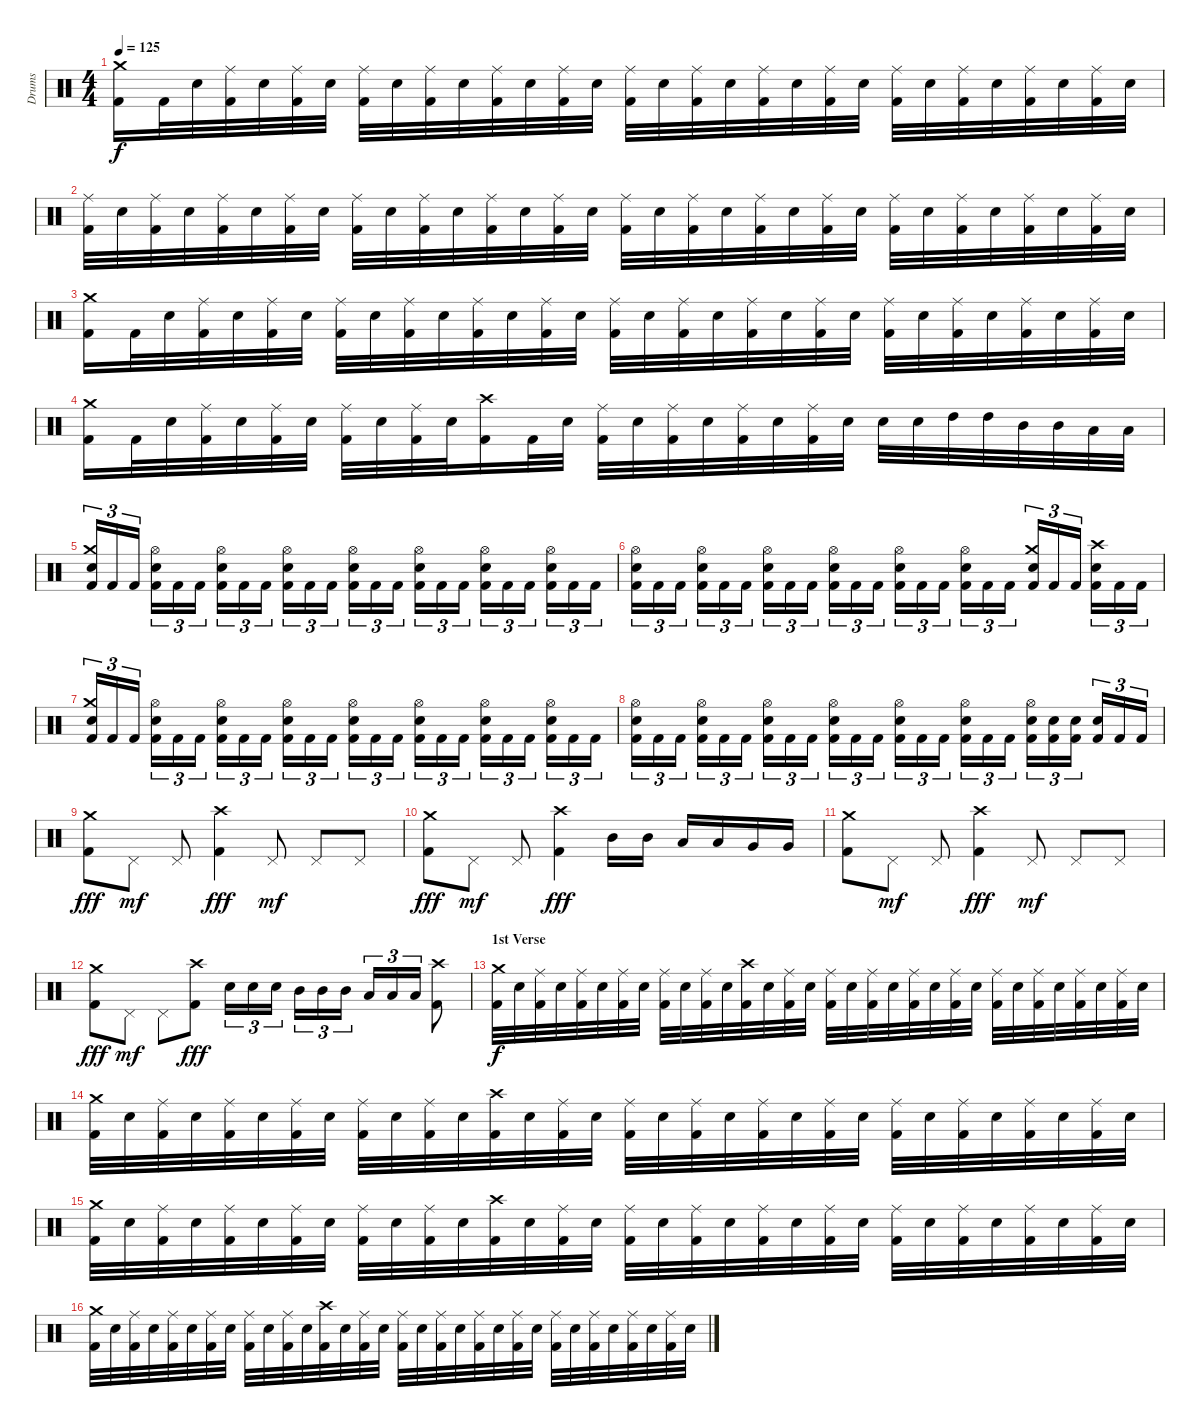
\track ("Drums" "Drums") {instrument percussion}
\staff {score}
\articulation defaults
\ts (4 4)
\tempo 125
\clef neutral
\ks c
("Kick (hit) 2" "Crash medium (hit)").16{dy f} "Kick (hit) 2".32 "Electric Snare (hit)".32 ("Kick (hit) 2" "Ride (middle)").32 "Electric Snare (hit)".32 ("Kick (hit) 2" "Ride (middle)").32 "Electric Snare (hit)".32 ("Kick (hit) 2" "Ride (middle)").32 "Electric Snare (hit)".32 ("Kick (hit) 2" "Ride (middle)").32 "Electric Snare (hit)".32 ("Kick (hit) 2" "Ride (middle)").32 "Electric Snare (hit)".32 ("Kick (hit) 2" "Ride (middle)").32 "Electric Snare (hit)".32 ("Kick (hit) 2" "Ride (middle)").32 "Electric Snare (hit)".32 ("Kick (hit) 2" "Ride (middle)").32 "Electric Snare (hit)".32 ("Kick (hit) 2" "Ride (middle)").32 "Electric Snare (hit)".32 ("Kick (hit) 2" "Ride (middle)").32 "Electric Snare (hit)".32 ("Kick (hit) 2" "Ride (middle)").32 "Electric Snare (hit)".32 ("Kick (hit) 2" "Ride (middle)").32 "Electric Snare (hit)".32 ("Kick (hit) 2" "Ride (middle)").32 "Electric Snare (hit)".32 ("Kick (hit) 2" "Ride (middle)").32 "Electric Snare (hit)".32 |
("Kick (hit) 2" "Ride (middle)").32 "Electric Snare (hit)".32 ("Kick (hit) 2" "Ride (middle)").32 "Electric Snare (hit)".32 ("Kick (hit) 2" "Ride (middle)").32 "Electric Snare (hit)".32 ("Kick (hit) 2" "Ride (middle)").32 "Electric Snare (hit)".32 ("Kick (hit) 2" "Ride (middle)").32 "Electric Snare (hit)".32 ("Kick (hit) 2" "Ride (middle)").32 "Electric Snare (hit)".32 ("Kick (hit) 2" "Ride (middle)").32 "Electric Snare (hit)".32 ("Kick (hit) 2" "Ride (middle)").32 "Electric Snare (hit)".32 ("Kick (hit) 2" "Ride (middle)").32 "Electric Snare (hit)".32 ("Kick (hit) 2" "Ride (middle)").32 "Electric Snare (hit)".32 ("Kick (hit) 2" "Ride (middle)").32 "Electric Snare (hit)".32 ("Kick (hit) 2" "Ride (middle)").32 "Electric Snare (hit)".32 ("Kick (hit) 2" "Ride (middle)").32 "Electric Snare (hit)".32 ("Kick (hit) 2" "Ride (middle)").32 "Electric Snare (hit)".32 ("Kick (hit) 2" "Ride (middle)").32 "Electric Snare (hit)".32 ("Kick (hit) 2" "Ride (middle)").32 "Electric Snare (hit)".32 |
("Kick (hit) 2" "Crash medium (hit)").16 "Kick (hit) 2".32 "Electric Snare (hit)".32 ("Kick (hit) 2" "Ride (middle)").32 "Electric Snare (hit)".32 ("Kick (hit) 2" "Ride (middle)").32 "Electric Snare (hit)".32 ("Kick (hit) 2" "Ride (middle)").32 "Electric Snare (hit)".32 ("Kick (hit) 2" "Ride (middle)").32 "Electric Snare (hit)".32 ("Kick (hit) 2" "Ride (middle)").32 "Electric Snare (hit)".32 ("Kick (hit) 2" "Ride (middle)").32 "Electric Snare (hit)".32 ("Kick (hit) 2" "Ride (middle)").32 "Electric Snare (hit)".32 ("Kick (hit) 2" "Ride (middle)").32 "Electric Snare (hit)".32 ("Kick (hit) 2" "Ride (middle)").32 "Electric Snare (hit)".32 ("Kick (hit) 2" "Ride (middle)").32 "Electric Snare (hit)".32 ("Kick (hit) 2" "Ride (middle)").32 "Electric Snare (hit)".32 ("Kick (hit) 2" "Ride (middle)").32 "Electric Snare (hit)".32 ("Kick (hit) 2" "Ride (middle)").32 "Electric Snare (hit)".32 ("Kick (hit) 2" "Ride (middle)").32 "Electric Snare (hit)".32 |
("Kick (hit) 2" "Crash medium (hit)").16 "Kick (hit) 2".32 "Electric Snare (hit)".32 ("Kick (hit) 2" "Ride (middle)").32 "Electric Snare (hit)".32 ("Kick (hit) 2" "Ride (middle)").32 "Electric Snare (hit)".32 ("Kick (hit) 2" "Ride (middle)").32 "Electric Snare (hit)".32 ("Kick (hit) 2" "Ride (middle)").32 "Electric Snare (hit)".32 ("Kick (hit) 2" "Crash high (hit)").16 "Kick (hit) 2".32 "Electric Snare (hit)".32 ("Kick (hit) 2" "Ride (middle)").32 "Electric Snare (hit)".32 ("Kick (hit) 2" "Ride (middle)").32 "Electric Snare (hit)".32 ("Kick (hit) 2" "Ride (middle)").32 "Electric Snare (hit)".32 ("Kick (hit) 2" "Ride (middle)").32 "Electric Snare (hit)".32 "Electric Snare (hit)".32 "Electric Snare (hit)".32 "High Tom (hit)".32 "High Tom (hit)".32 "Mid Tom (hit)".32 "Mid Tom (hit)".32 "Low Tom (hit)".32 "Low Tom (hit)".32 |
("Kick (hit) 2" "Electric Snare (hit)" "Crash medium (hit)").16{tu (3 2)} "Kick (hit) 2".16{tu (3 2)} "Kick (hit) 2".16{tu (3 2)} ("Kick (hit) 2" "Electric Snare (hit)" "Hi-Hat (open)").16{tu (3 2)} "Kick (hit) 2".16{tu (3 2)} "Kick (hit) 2".16{tu (3 2)} ("Kick (hit) 2" "Electric Snare (hit)" "Hi-Hat (open)").16{tu (3 2)} "Kick (hit) 2".16{tu (3 2)} "Kick (hit) 2".16{tu (3 2)} ("Kick (hit) 2" "Electric Snare (hit)" "Hi-Hat (open)").16{tu (3 2)} "Kick (hit) 2".16{tu (3 2)} "Kick (hit) 2".16{tu (3 2)} ("Kick (hit) 2" "Electric Snare (hit)" "Hi-Hat (open)").16{tu (3 2)} "Kick (hit) 2".16{tu (3 2)} "Kick (hit) 2".16{tu (3 2)} ("Kick (hit) 2" "Electric Snare (hit)" "Hi-Hat (open)").16{tu (3 2)} "Kick (hit) 2".16{tu (3 2)} "Kick (hit) 2".16{tu (3 2)} ("Kick (hit) 2" "Electric Snare (hit)" "Hi-Hat (open)").16{tu (3 2)} "Kick (hit) 2".16{tu (3 2)} "Kick (hit) 2".16{tu (3 2)} ("Kick (hit) 2" "Electric Snare (hit)" "Hi-Hat (open)").16{tu (3 2)} "Kick (hit) 2".16{tu (3 2)} "Kick (hit) 2".16{tu (3 2)} |
("Kick (hit) 2" "Electric Snare (hit)" "Hi-Hat (open)").16{tu (3 2)} "Kick (hit) 2".16{tu (3 2)} "Kick (hit) 2".16{tu (3 2)} ("Kick (hit) 2" "Electric Snare (hit)" "Hi-Hat (open)").16{tu (3 2)} "Kick (hit) 2".16{tu (3 2)} "Kick (hit) 2".16{tu (3 2)} ("Kick (hit) 2" "Electric Snare (hit)" "Hi-Hat (open)").16{tu (3 2)} "Kick (hit) 2".16{tu (3 2)} "Kick (hit) 2".16{tu (3 2)} ("Kick (hit) 2" "Electric Snare (hit)" "Hi-Hat (open)").16{tu (3 2)} "Kick (hit) 2".16{tu (3 2)} "Kick (hit) 2".16{tu (3 2)} ("Kick (hit) 2" "Electric Snare (hit)" "Hi-Hat (open)").16{tu (3 2)} "Kick (hit) 2".16{tu (3 2)} "Kick (hit) 2".16{tu (3 2)} ("Kick (hit) 2" "Electric Snare (hit)" "Hi-Hat (open)").16{tu (3 2)} "Kick (hit) 2".16{tu (3 2)} "Kick (hit) 2".16{tu (3 2)} ("Kick (hit) 2" "Electric Snare (hit)" "Crash medium (hit)").16{tu (3 2)} "Kick (hit) 2".16{tu (3 2)} "Kick (hit) 2".16{tu (3 2)} ("Kick (hit) 2" "Electric Snare (hit)" "Crash high (hit)").16{tu (3 2)} "Kick (hit) 2".16{tu (3 2)} "Kick (hit) 2".16{tu (3 2)} |
("Kick (hit) 2" "Electric Snare (hit)" "Crash medium (hit)").16{tu (3 2)} "Kick (hit) 2".16{tu (3 2)} "Kick (hit) 2".16{tu (3 2)} ("Kick (hit) 2" "Electric Snare (hit)" "Hi-Hat (open)").16{tu (3 2)} "Kick (hit) 2".16{tu (3 2)} "Kick (hit) 2".16{tu (3 2)} ("Kick (hit) 2" "Electric Snare (hit)" "Hi-Hat (open)").16{tu (3 2)} "Kick (hit) 2".16{tu (3 2)} "Kick (hit) 2".16{tu (3 2)} ("Kick (hit) 2" "Electric Snare (hit)" "Hi-Hat (open)").16{tu (3 2)} "Kick (hit) 2".16{tu (3 2)} "Kick (hit) 2".16{tu (3 2)} ("Kick (hit) 2" "Electric Snare (hit)" "Hi-Hat (open)").16{tu (3 2)} "Kick (hit) 2".16{tu (3 2)} "Kick (hit) 2".16{tu (3 2)} ("Kick (hit) 2" "Electric Snare (hit)" "Hi-Hat (open)").16{tu (3 2)} "Kick (hit) 2".16{tu (3 2)} "Kick (hit) 2".16{tu (3 2)} ("Kick (hit) 2" "Electric Snare (hit)" "Hi-Hat (open)").16{tu (3 2)} "Kick (hit) 2".16{tu (3 2)} "Kick (hit) 2".16{tu (3 2)} ("Kick (hit) 2" "Electric Snare (hit)" "Hi-Hat (open)").16{tu (3 2)} "Kick (hit) 2".16{tu (3 2)} "Kick (hit) 2".16{tu (3 2)} |
("Kick (hit) 2" "Electric Snare (hit)" "Hi-Hat (open)").16{tu (3 2)} "Kick (hit) 2".16{tu (3 2)} "Kick (hit) 2".16{tu (3 2)} ("Kick (hit) 2" "Electric Snare (hit)" "Hi-Hat (open)").16{tu (3 2)} "Kick (hit) 2".16{tu (3 2)} "Kick (hit) 2".16{tu (3 2)} ("Kick (hit) 2" "Electric Snare (hit)" "Hi-Hat (open)").16{tu (3 2)} "Kick (hit) 2".16{tu (3 2)} "Kick (hit) 2".16{tu (3 2)} ("Kick (hit) 2" "Electric Snare (hit)" "Hi-Hat (open)").16{tu (3 2)} "Kick (hit) 2".16{tu (3 2)} "Kick (hit) 2".16{tu (3 2)} ("Kick (hit) 2" "Electric Snare (hit)" "Hi-Hat (open)").16{tu (3 2)} "Kick (hit) 2".16{tu (3 2)} "Kick (hit) 2".16{tu (3 2)} ("Kick (hit) 2" "Electric Snare (hit)" "Hi-Hat (open)").16{tu (3 2)} "Kick (hit) 2".16{tu (3 2)} "Kick (hit) 2".16{tu (3 2)} ("Kick (hit) 2" "Electric Snare (hit)" "Hi-Hat (open)").16{tu (3 2)} ("Kick (hit) 2" "Electric Snare (hit)").16{tu (3 2)} ("Kick (hit) 2" "Electric Snare (hit)").16{tu (3 2)} ("Kick (hit) 2" "Electric Snare (hit)").16{tu (3 2)} "Kick (hit) 2".16{tu (3 2)} "Kick (hit) 2".16{tu (3 2)} |
("Kick (hit) 2" "Crash medium (hit)").8{dy fff} "Pedal Hi-Hat (hit)".8{dy mf} "Pedal Hi-Hat (hit)".8 ("Kick (hit) 2" "Crash high (hit)").4{dy fff} "Pedal Hi-Hat (hit)".8{dy mf} "Pedal Hi-Hat (hit)".8 "Pedal Hi-Hat (hit)".8 |
("Kick (hit) 2" "Crash medium (hit)").8{dy fff} "Pedal Hi-Hat (hit)".8{dy mf} "Pedal Hi-Hat (hit)".8 ("Kick (hit) 2" "Crash high (hit)").4{dy fff} "Mid Tom (hit)".16 "Mid Tom (hit)".16 "Low Tom (hit)".16 "Low Tom (hit)".16 "Very Low Tom (hit)".16 "Very Low Tom (hit)".16 |
("Kick (hit) 2" "Crash medium (hit)").8 "Pedal Hi-Hat (hit)".8{dy mf} "Pedal Hi-Hat (hit)".8 ("Kick (hit) 2" "Crash high (hit)").4{dy fff} "Pedal Hi-Hat (hit)".8{dy mf} "Pedal Hi-Hat (hit)".8 "Pedal Hi-Hat (hit)".8 |
("Kick (hit) 2" "Crash medium (hit)").8{dy fff} "Pedal Hi-Hat (hit)".8{dy mf} "Pedal Hi-Hat (hit)".8 ("Kick (hit) 2" "Crash high (hit)").8{dy fff} "Electric Snare (hit)".16{tu (3 2)} "Electric Snare (hit)".16{tu (3 2)} "Electric Snare (hit)".16{tu (3 2)} "Mid Tom (hit)".16{tu (3 2)} "Mid Tom (hit)".16{tu (3 2)} "Mid Tom (hit)".16{tu (3 2)} "Low Tom (hit)".16{tu (3 2)} "Low Tom (hit)".16{tu (3 2)} "Low Tom (hit)".16{tu (3 2)} ("Kick (hit) 2" "Crash high (hit)").8 |
\section ("" "1st Verse")
("Kick (hit) 2" "Crash medium (hit)").32{dy f} "Electric Snare (hit)".32 ("Kick (hit) 2" "Ride (middle)").32 "Electric Snare (hit)".32 ("Kick (hit) 2" "Ride (middle)").32 "Electric Snare (hit)".32 ("Kick (hit) 2" "Ride (middle)").32 "Electric Snare (hit)".32 ("Kick (hit) 2" "Ride (middle)").32 "Electric Snare (hit)".32 ("Kick (hit) 2" "Ride (middle)").32 "Electric Snare (hit)".32 ("Kick (hit) 2" "Crash high (hit)").32 "Electric Snare (hit)".32 ("Kick (hit) 2" "Ride (middle)").32 "Electric Snare (hit)".32 ("Kick (hit) 2" "Ride (middle)").32 "Electric Snare (hit)".32 ("Kick (hit) 2" "Ride (middle)").32 "Electric Snare (hit)".32 ("Kick (hit) 2" "Ride (middle)").32 "Electric Snare (hit)".32 ("Kick (hit) 2" "Ride (middle)").32 "Electric Snare (hit)".32 ("Kick (hit) 2" "Ride (middle)").32 "Electric Snare (hit)".32 ("Kick (hit) 2" "Ride (middle)").32 "Electric Snare (hit)".32 ("Kick (hit) 2" "Ride (middle)").32 "Electric Snare (hit)".32 ("Kick (hit) 2" "Ride (middle)").32 "Electric Snare (hit)".32 |
("Kick (hit) 2" "Crash medium (hit)").32 "Electric Snare (hit)".32 ("Kick (hit) 2" "Ride (middle)").32 "Electric Snare (hit)".32 ("Kick (hit) 2" "Ride (middle)").32 "Electric Snare (hit)".32 ("Kick (hit) 2" "Ride (middle)").32 "Electric Snare (hit)".32 ("Kick (hit) 2" "Ride (middle)").32 "Electric Snare (hit)".32 ("Kick (hit) 2" "Ride (middle)").32 "Electric Snare (hit)".32 ("Kick (hit) 2" "Crash high (hit)").32 "Electric Snare (hit)".32 ("Kick (hit) 2" "Ride (middle)").32 "Electric Snare (hit)".32 ("Kick (hit) 2" "Ride (middle)").32 "Electric Snare (hit)".32 ("Kick (hit) 2" "Ride (middle)").32 "Electric Snare (hit)".32 ("Kick (hit) 2" "Ride (middle)").32 "Electric Snare (hit)".32 ("Kick (hit) 2" "Ride (middle)").32 "Electric Snare (hit)".32 ("Kick (hit) 2" "Ride (middle)").32 "Electric Snare (hit)".32 ("Kick (hit) 2" "Ride (middle)").32 "Electric Snare (hit)".32 ("Kick (hit) 2" "Ride (middle)").32 "Electric Snare (hit)".32 ("Kick (hit) 2" "Ride (middle)").32 "Electric Snare (hit)".32 |
("Kick (hit) 2" "Crash medium (hit)").32 "Electric Snare (hit)".32 ("Kick (hit) 2" "Ride (middle)").32 "Electric Snare (hit)".32 ("Kick (hit) 2" "Ride (middle)").32 "Electric Snare (hit)".32 ("Kick (hit) 2" "Ride (middle)").32 "Electric Snare (hit)".32 ("Kick (hit) 2" "Ride (middle)").32 "Electric Snare (hit)".32 ("Kick (hit) 2" "Ride (middle)").32 "Electric Snare (hit)".32 ("Kick (hit) 2" "Crash high (hit)").32 "Electric Snare (hit)".32 ("Kick (hit) 2" "Ride (middle)").32 "Electric Snare (hit)".32 ("Kick (hit) 2" "Ride (middle)").32 "Electric Snare (hit)".32 ("Kick (hit) 2" "Ride (middle)").32 "Electric Snare (hit)".32 ("Kick (hit) 2" "Ride (middle)").32 "Electric Snare (hit)".32 ("Kick (hit) 2" "Ride (middle)").32 "Electric Snare (hit)".32 ("Kick (hit) 2" "Ride (middle)").32 "Electric Snare (hit)".32 ("Kick (hit) 2" "Ride (middle)").32 "Electric Snare (hit)".32 ("Kick (hit) 2" "Ride (middle)").32 "Electric Snare (hit)".32 ("Kick (hit) 2" "Ride (middle)").32 "Electric Snare (hit)".32 |
("Kick (hit) 2" "Crash medium (hit)").32 "Electric Snare (hit)".32 ("Kick (hit) 2" "Ride (middle)").32 "Electric Snare (hit)".32 ("Kick (hit) 2" "Ride (middle)").32 "Electric Snare (hit)".32 ("Kick (hit) 2" "Ride (middle)").32 "Electric Snare (hit)".32 ("Kick (hit) 2" "Ride (middle)").32 "Electric Snare (hit)".32 ("Kick (hit) 2" "Ride (middle)").32 "Electric Snare (hit)".32 ("Kick (hit) 2" "Crash high (hit)").32 "Electric Snare (hit)".32 ("Kick (hit) 2" "Ride (middle)").32 "Electric Snare (hit)".32 ("Kick (hit) 2" "Ride (middle)").32 "Electric Snare (hit)".32 ("Kick (hit) 2" "Ride (middle)").32 "Electric Snare (hit)".32 ("Kick (hit) 2" "Ride (middle)").32 "Electric Snare (hit)".32 ("Kick (hit) 2" "Ride (middle)").32 "Electric Snare (hit)".32 ("Kick (hit) 2" "Ride (middle)").32 "Electric Snare (hit)".32 ("Kick (hit) 2" "Ride (middle)").32 "Electric Snare (hit)".32 ("Kick (hit) 2" "Ride (middle)").32 "Electric Snare (hit)".32 ("Kick (hit) 2" "Ride (middle)").32 "Electric Snare (hit)".32
